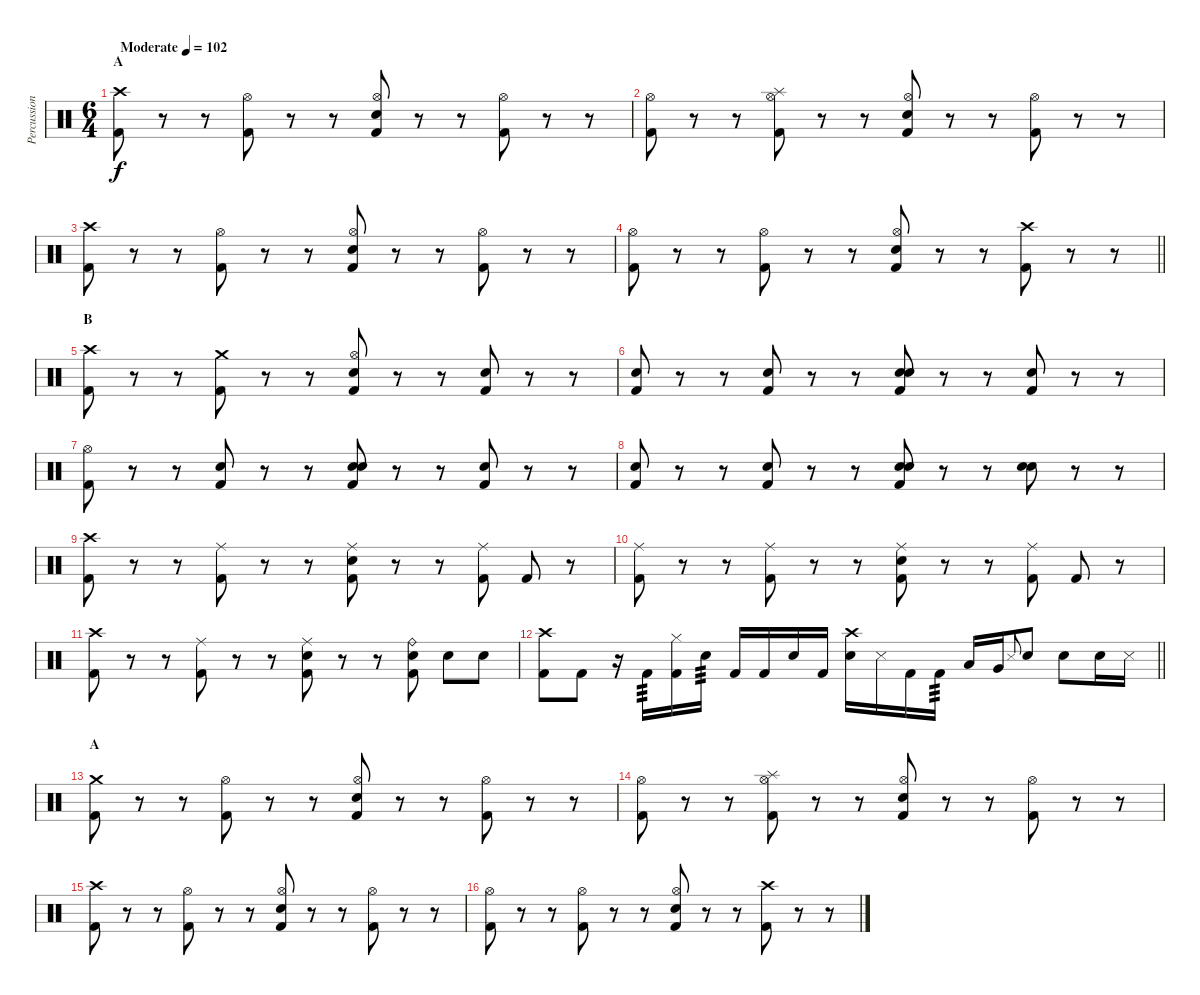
\track ("Percussion" "Percussion") {solo instrument percussion}
\staff {score}
\articulation defaults
\ts (6 4)
\section ("" "A")
\tempo (102 "Moderate")
\clef neutral
\ks c
("Crash high (hit)" "Kick (hit) 2").8{dy f} r.8 r.8 ("Hi-Hat (open)" "Kick (hit) 2").8 r.8 r.8 ("Hi-Hat (open)" "Snare (hit) 2" "Kick (hit) 2").8 r.8 r.8 ("Hi-Hat (open)" "Kick (hit) 2").8 r.8 r.8 |
("Hi-Hat (open)" "Kick (hit) 2").8 r.8 r.8 ("Hi-Hat (open)" "Splash (hit)" "Kick (hit) 2").8 r.8 r.8 ("Hi-Hat (open)" "Snare (hit) 2" "Kick (hit) 2").8 r.8 r.8 ("Hi-Hat (open)" "Kick (hit) 2").8 r.8 r.8 |
("Crash high (hit)" "Kick (hit) 2").8 r.8 r.8 ("Hi-Hat (open)" "Kick (hit) 2").8 r.8 r.8 ("Hi-Hat (open)" "Snare (hit) 2" "Kick (hit) 2").8 r.8 r.8 ("Hi-Hat (open)" "Kick (hit) 2").8 r.8 r.8 |
\barLineRight lightlight
("Hi-Hat (open)" "Kick (hit) 2").8 r.8 r.8 ("Hi-Hat (open)" "Kick (hit) 2").8 r.8 r.8 ("Hi-Hat (open)" "Snare (hit) 2" "Kick (hit) 2").8 r.8 r.8 ("Crash high (hit)" "Kick (hit) 2").8 r.8 r.8 |
\section ("" "B")
("Crash high (hit)" "Kick (hit) 2").8 r.8 r.8 ("Crash medium (hit)" "Kick (hit) 2").8 r.8 r.8 ("Hi-Hat (open)" "Snare (hit) 2" "Kick (hit) 2").8 r.8 r.8 ("Snare (hit)" "Kick (hit) 2").8 r.8 r.8 |
("Snare (hit)" "Kick (hit) 2").8 r.8 r.8 ("Snare (hit)" "Kick (hit) 2").8 r.8 r.8 ("Snare (hit)" "Snare (hit) 2" "Kick (hit) 2").8 r.8 r.8 ("Snare (hit)" "Kick (hit) 2").8 r.8 r.8 |
("Hi-Hat (open)" "Kick (hit) 2").8 r.8 r.8 ("Snare (hit)" "Kick (hit) 2").8 r.8 r.8 ("Snare (hit)" "Snare (hit) 2" "Kick (hit) 2").8 r.8 r.8 ("Snare (hit)" "Kick (hit) 2").8 r.8 r.8 |
("Snare (hit)" "Kick (hit) 2").8 r.8 r.8 ("Snare (hit)" "Kick (hit) 2").8 r.8 r.8 ("Snare (hit)" "Snare (hit) 2" "Kick (hit) 2").8 r.8 r.8 ("Snare (hit)" "Snare (hit) 2").8 r.8 r.8 |
("Crash high (hit)" "Kick (hit) 2").8 r.8 r.8 ("Ride (middle)" "Kick (hit) 2").8 r.8 r.8 ("Ride (middle)" "Snare (hit) 2" "Kick (hit) 2").8 r.8 r.8 ("Ride (middle)" "Kick (hit) 2").8 "Kick (hit) 2".8 r.8 |
("Ride (middle)" "Kick (hit) 2").8 r.8 r.8 ("Ride (middle)" "Kick (hit) 2").8 r.8 r.8 ("Ride (middle)" "Snare (hit) 2" "Kick (hit) 2").8 r.8 r.8 ("Ride (middle)" "Kick (hit) 2").8 "Kick (hit) 2".8 r.8 |
("Crash high (hit)" "Kick (hit) 2").8 r.8 r.8 ("Ride (middle)" "Kick (hit) 2").8 r.8 r.8 ("Ride (middle)" "Snare (hit) 2" "Kick (hit) 2").8 r.8 r.8 ("Ride (bell)" "Snare (hit) 2" "Kick (hit) 2").8 "Snare (hit) 2".8 "Snare (hit)".8 |
\barLineRight lightlight
("Crash high (hit)" "Kick (hit) 2").8 "Kick (hit) 2".8 r.16 "Kick (hit) 2".16{tp 3} ("Hi-Hat (closed)" "Kick (hit) 2").16 "Snare (hit) 2".16{tp 3} "Kick (hit) 2".16 "Kick (hit) 2".16 "Snare (hit) 2".16 "Kick (hit) 2".16 ("Crash high (hit)" "Snare (hit) 2").16 "Metronome (hit)".16 "Kick (hit) 2".16 "Kick (hit) 2".16{tp 3} "Low Tom (hit)".16 "Very Low Tom (hit)".16 "Metronome (hit)".8{gr onbeat} "Snare (hit) 2".8 "Snare (hit) 2".8 "Snare (hit) 2".16 "Metronome (hit)".16 |
\section ("" "A")
("Crash medium (hit)" "Kick (hit) 2").8 r.8 r.8 ("Hi-Hat (open)" "Kick (hit) 2").8 r.8 r.8 ("Hi-Hat (open)" "Snare (hit) 2" "Kick (hit) 2").8 r.8 r.8 ("Hi-Hat (open)" "Kick (hit) 2").8 r.8 r.8 |
("Hi-Hat (open)" "Kick (hit) 2").8 r.8 r.8 ("Hi-Hat (open)" "Splash (hit)" "Kick (hit) 2").8 r.8 r.8 ("Hi-Hat (open)" "Snare (hit) 2" "Kick (hit) 2").8 r.8 r.8 ("Hi-Hat (open)" "Kick (hit) 2").8 r.8 r.8 |
("Crash high (hit)" "Kick (hit) 2").8 r.8 r.8 ("Hi-Hat (open)" "Kick (hit) 2").8 r.8 r.8 ("Hi-Hat (open)" "Snare (hit) 2" "Kick (hit) 2").8 r.8 r.8 ("Hi-Hat (open)" "Kick (hit) 2").8 r.8 r.8 |
("Hi-Hat (open)" "Kick (hit) 2").8 r.8 r.8 ("Hi-Hat (open)" "Kick (hit) 2").8 r.8 r.8 ("Hi-Hat (open)" "Snare (hit) 2" "Kick (hit) 2").8 r.8 r.8 ("Crash high (hit)" "Kick (hit) 2").8 r.8 r.8
